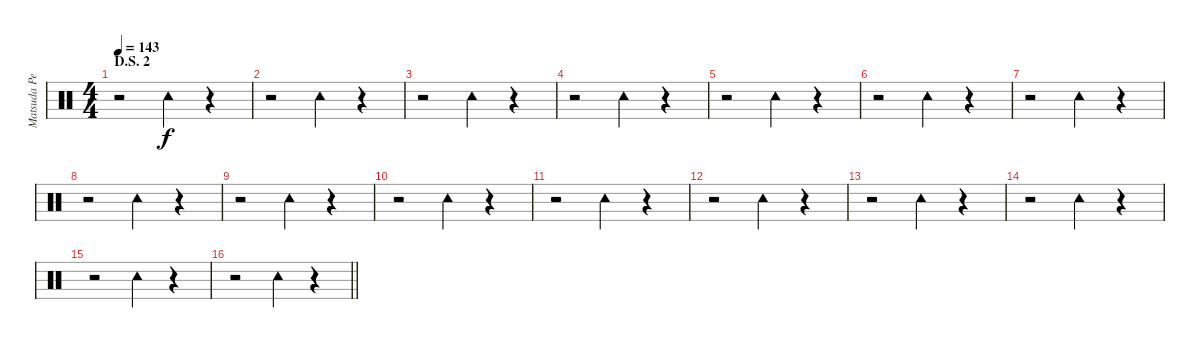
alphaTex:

\track ("Matsuda Percussion" "Matsuda Pe") {instrument percussion}
\staff {score}
\articulation defaults
\ts (4 4)
\section ("" "D.S. 2")
\tempo 143
\clef neutral
\ks c
r.2{dy f} "Tambourine (hit)".4 r.4 |
r.2 "Tambourine (hit)".4 r.4 |
r.2 "Tambourine (hit)".4 r.4 |
r.2 "Tambourine (hit)".4 r.4 |
r.2 "Tambourine (hit)".4 r.4 |
r.2 "Tambourine (hit)".4 r.4 |
r.2 "Tambourine (hit)".4 r.4 |
r.2 "Tambourine (hit)".4 r.4 |
r.2 "Tambourine (hit)".4 r.4 |
r.2 "Tambourine (hit)".4 r.4 |
r.2 "Tambourine (hit)".4 r.4 |
r.2 "Tambourine (hit)".4 r.4 |
r.2 "Tambourine (hit)".4 r.4 |
r.2 "Tambourine (hit)".4 r.4 |
r.2 "Tambourine (hit)".4 r.4 |
\barLineRight lightlight
r.2 "Tambourine (hit)".4 r.4
